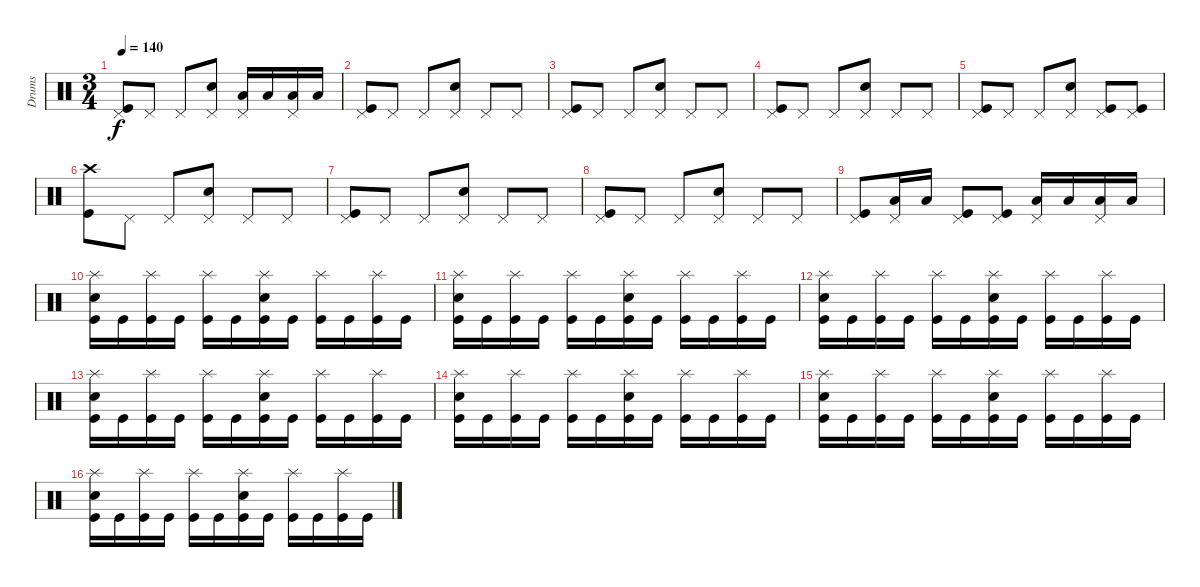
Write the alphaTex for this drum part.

\track ("Drums" "Drums") {instrument percussion}
\staff {score}
\articulation defaults
\ts (3 4)
\tempo 140
\clef neutral
\ks c
("Kick (hit)" "Pedal Hi-Hat (hit)").8{dy f} "Pedal Hi-Hat (hit)".8 "Pedal Hi-Hat (hit)".8 ("Snare (hit) 2" "Pedal Hi-Hat (hit)").8 ("Low Tom (hit)" "Pedal Hi-Hat (hit)").16 "Low Tom (hit)".16 ("Low Tom (hit)" "Pedal Hi-Hat (hit)").16 "Low Tom (hit)".16 |
("Kick (hit)" "Pedal Hi-Hat (hit)").8 "Pedal Hi-Hat (hit)".8 "Pedal Hi-Hat (hit)".8 ("Snare (hit) 2" "Pedal Hi-Hat (hit)").8 "Pedal Hi-Hat (hit)".8 "Pedal Hi-Hat (hit)".8 |
("Kick (hit)" "Pedal Hi-Hat (hit)").8 "Pedal Hi-Hat (hit)".8 "Pedal Hi-Hat (hit)".8 ("Snare (hit) 2" "Pedal Hi-Hat (hit)").8 "Pedal Hi-Hat (hit)".8 "Pedal Hi-Hat (hit)".8 |
("Kick (hit)" "Pedal Hi-Hat (hit)").8 "Pedal Hi-Hat (hit)".8 "Pedal Hi-Hat (hit)".8 ("Snare (hit) 2" "Pedal Hi-Hat (hit)").8 "Pedal Hi-Hat (hit)".8 "Pedal Hi-Hat (hit)".8 |
("Kick (hit)" "Pedal Hi-Hat (hit)").8 "Pedal Hi-Hat (hit)".8 "Pedal Hi-Hat (hit)".8 ("Snare (hit) 2" "Pedal Hi-Hat (hit)").8 ("Kick (hit)" "Pedal Hi-Hat (hit)").8 ("Kick (hit)" "Pedal Hi-Hat (hit)").8 |
("Kick (hit)" "Crash high (hit)").8 "Pedal Hi-Hat (hit)".8 "Pedal Hi-Hat (hit)".8 ("Snare (hit) 2" "Pedal Hi-Hat (hit)").8 "Pedal Hi-Hat (hit)".8 "Pedal Hi-Hat (hit)".8 |
("Kick (hit)" "Pedal Hi-Hat (hit)").8 "Pedal Hi-Hat (hit)".8 "Pedal Hi-Hat (hit)".8 ("Snare (hit) 2" "Pedal Hi-Hat (hit)").8 "Pedal Hi-Hat (hit)".8 "Pedal Hi-Hat (hit)".8 |
("Kick (hit)" "Pedal Hi-Hat (hit)").8 "Pedal Hi-Hat (hit)".8 "Pedal Hi-Hat (hit)".8 ("Snare (hit) 2" "Pedal Hi-Hat (hit)").8 "Pedal Hi-Hat (hit)".8 "Pedal Hi-Hat (hit)".8 |
("Kick (hit)" "Pedal Hi-Hat (hit)").8 ("Low Tom (hit)" "Pedal Hi-Hat (hit)").16 "Low Tom (hit)".16 ("Kick (hit)" "Pedal Hi-Hat (hit)").8 ("Kick (hit)" "Pedal Hi-Hat (hit)").8 ("Low Tom (hit)" "Pedal Hi-Hat (hit)").16 "Low Tom (hit)".16 ("Low Tom (hit)" "Pedal Hi-Hat (hit)").16 "Low Tom (hit)".16 |
("Kick (hit)" "Snare (hit) 2" "Splash (hit)").16 "Kick (hit)".16 ("Kick (hit)" "Splash (hit)").16 "Kick (hit)".16 ("Kick (hit)" "Splash (hit)").16 "Kick (hit)".16 ("Kick (hit)" "Snare (hit) 2" "Splash (hit)").16 "Kick (hit)".16 ("Kick (hit)" "Splash (hit)").16 "Kick (hit)".16 ("Kick (hit)" "Splash (hit)").16 "Kick (hit)".16 |
("Kick (hit)" "Snare (hit) 2" "Splash (hit)").16 "Kick (hit)".16 ("Kick (hit)" "Splash (hit)").16 "Kick (hit)".16 ("Kick (hit)" "Splash (hit)").16 "Kick (hit)".16 ("Kick (hit)" "Snare (hit) 2" "Splash (hit)").16 "Kick (hit)".16 ("Kick (hit)" "Splash (hit)").16 "Kick (hit)".16 ("Kick (hit)" "Splash (hit)").16 "Kick (hit)".16 |
("Kick (hit)" "Snare (hit) 2" "Splash (hit)").16 "Kick (hit)".16 ("Kick (hit)" "Splash (hit)").16 "Kick (hit)".16 ("Kick (hit)" "Splash (hit)").16 "Kick (hit)".16 ("Kick (hit)" "Snare (hit) 2" "Splash (hit)").16 "Kick (hit)".16 ("Kick (hit)" "Splash (hit)").16 "Kick (hit)".16 ("Kick (hit)" "Splash (hit)").16 "Kick (hit)".16 |
("Kick (hit)" "Snare (hit) 2" "Splash (hit)").16 "Kick (hit)".16 ("Kick (hit)" "Splash (hit)").16 "Kick (hit)".16 ("Kick (hit)" "Splash (hit)").16 "Kick (hit)".16 ("Kick (hit)" "Snare (hit) 2" "Splash (hit)").16 "Kick (hit)".16 ("Kick (hit)" "Splash (hit)").16 "Kick (hit)".16 ("Kick (hit)" "Splash (hit)").16 "Kick (hit)".16 |
("Kick (hit)" "Snare (hit) 2" "Splash (hit)").16 "Kick (hit)".16 ("Kick (hit)" "Splash (hit)").16 "Kick (hit)".16 ("Kick (hit)" "Splash (hit)").16 "Kick (hit)".16 ("Kick (hit)" "Snare (hit) 2" "Splash (hit)").16 "Kick (hit)".16 ("Kick (hit)" "Splash (hit)").16 "Kick (hit)".16 ("Kick (hit)" "Splash (hit)").16 "Kick (hit)".16 |
("Kick (hit)" "Snare (hit) 2" "Splash (hit)").16 "Kick (hit)".16 ("Kick (hit)" "Splash (hit)").16 "Kick (hit)".16 ("Kick (hit)" "Splash (hit)").16 "Kick (hit)".16 ("Kick (hit)" "Snare (hit) 2" "Splash (hit)").16 "Kick (hit)".16 ("Kick (hit)" "Splash (hit)").16 "Kick (hit)".16 ("Kick (hit)" "Splash (hit)").16 "Kick (hit)".16 |
("Kick (hit)" "Snare (hit) 2" "Splash (hit)").16 "Kick (hit)".16 ("Kick (hit)" "Splash (hit)").16 "Kick (hit)".16 ("Kick (hit)" "Splash (hit)").16 "Kick (hit)".16 ("Kick (hit)" "Snare (hit) 2" "Splash (hit)").16 "Kick (hit)".16 ("Kick (hit)" "Splash (hit)").16 "Kick (hit)".16 ("Kick (hit)" "Splash (hit)").16 "Kick (hit)".16
